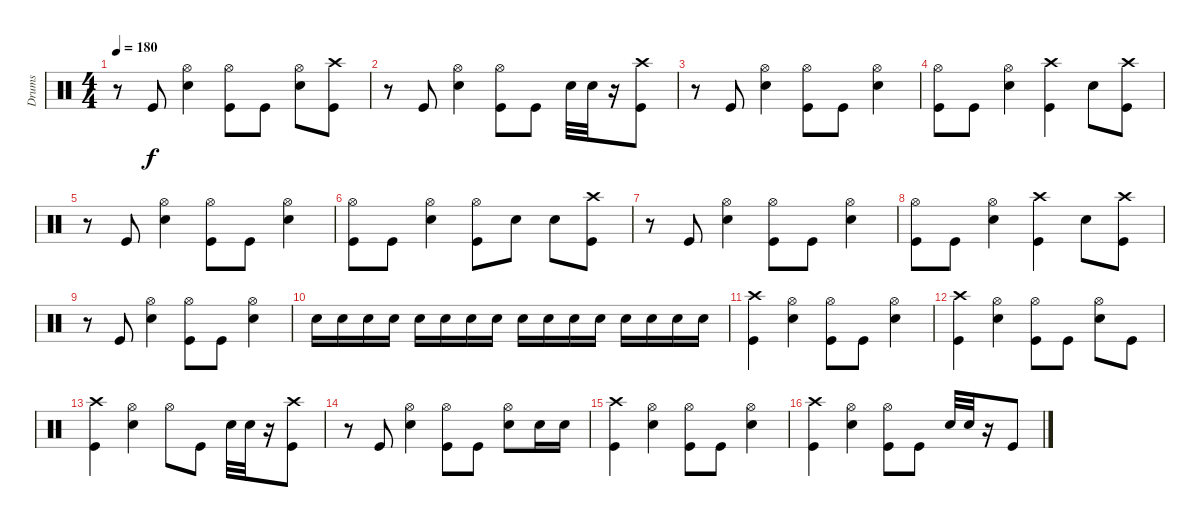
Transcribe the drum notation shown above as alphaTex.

\track ("Drums" "Drums") {instrument percussion}
\staff {score}
\articulation defaults
\ts (4 4)
\tempo 180
\clef neutral
\ks c
r.8{dy f} "Kick (hit)".8 ("Hi-Hat (open)" "Snare (hit) 2").4 ("Hi-Hat (open)" "Kick (hit)").8 "Kick (hit)".8 ("Hi-Hat (open)" "Snare (hit) 2").8 ("Crash high (hit)" "Kick (hit)").8 |
r.8 "Kick (hit)".8 ("Hi-Hat (open)" "Snare (hit) 2").4 ("Hi-Hat (open)" "Kick (hit)").8 "Kick (hit)".8 "Snare (hit) 2".32 "Snare (hit) 2".32 r.16 ("Crash high (hit)" "Kick (hit)").8 |
r.8 "Kick (hit)".8 ("Hi-Hat (open)" "Snare (hit) 2").4 ("Hi-Hat (open)" "Kick (hit)").8 "Kick (hit)".8 ("Hi-Hat (open)" "Snare (hit) 2").4 |
("Hi-Hat (open)" "Kick (hit)").8 "Kick (hit)".8 ("Hi-Hat (open)" "Snare (hit) 2").4 ("Crash high (hit)" "Kick (hit)").4 "Snare (hit) 2".8 ("Crash high (hit)" "Kick (hit)").8 |
r.8 "Kick (hit)".8 ("Hi-Hat (open)" "Snare (hit) 2").4 ("Hi-Hat (open)" "Kick (hit)").8 "Kick (hit)".8 ("Hi-Hat (open)" "Snare (hit) 2").4 |
("Hi-Hat (open)" "Kick (hit)").8 "Kick (hit)".8 ("Hi-Hat (open)" "Snare (hit) 2").4 ("Hi-Hat (open)" "Kick (hit)").8 "Snare (hit) 2".8 "Snare (hit) 2".8 ("Crash high (hit)" "Kick (hit)").8 |
r.8 "Kick (hit)".8 ("Hi-Hat (open)" "Snare (hit) 2").4 ("Hi-Hat (open)" "Kick (hit)").8 "Kick (hit)".8 ("Hi-Hat (open)" "Snare (hit) 2").4 |
("Hi-Hat (open)" "Kick (hit)").8 "Kick (hit)".8 ("Hi-Hat (open)" "Snare (hit) 2").4 ("Crash high (hit)" "Kick (hit)").4 "Snare (hit) 2".8 ("Crash high (hit)" "Kick (hit)").8 |
r.8 "Kick (hit)".8 ("Hi-Hat (open)" "Snare (hit) 2").4 ("Hi-Hat (open)" "Kick (hit)").8 "Kick (hit)".8 ("Hi-Hat (open)" "Snare (hit) 2").4 |
"Snare (hit) 2".16 "Snare (hit) 2".16 "Snare (hit) 2".16 "Snare (hit) 2".16 "Snare (hit) 2".16 "Snare (hit) 2".16 "Snare (hit) 2".16 "Snare (hit) 2".16 "Snare (hit) 2".16 "Snare (hit) 2".16 "Snare (hit) 2".16 "Snare (hit) 2".16 "Snare (hit) 2".16 "Snare (hit) 2".16 "Snare (hit) 2".16 "Snare (hit) 2".16 |
("Crash high (hit)" "Kick (hit)").4 ("Hi-Hat (open)" "Snare (hit) 2").4 ("Hi-Hat (open)" "Kick (hit)").8 "Kick (hit)".8 ("Hi-Hat (open)" "Snare (hit) 2").4 |
("Crash high (hit)" "Kick (hit)").4 ("Hi-Hat (open)" "Snare (hit) 2").4 ("Hi-Hat (open)" "Kick (hit)").8 "Kick (hit)".8 ("Hi-Hat (open)" "Snare (hit) 2").8 "Kick (hit)".8 |
("Crash high (hit)" "Kick (hit)").4 ("Hi-Hat (open)" "Snare (hit) 2").4 "Hi-Hat (open)".8 "Kick (hit)".8 "Snare (hit) 2".32 "Snare (hit) 2".32 r.16 ("Crash high (hit)" "Kick (hit)").8 |
r.8 "Kick (hit)".8 ("Hi-Hat (open)" "Snare (hit) 2").4 ("Hi-Hat (open)" "Kick (hit)").8 "Kick (hit)".8 ("Hi-Hat (open)" "Snare (hit) 2").8 "Snare (hit) 2".16 "Snare (hit) 2".16 |
("Crash high (hit)" "Kick (hit)").4 ("Hi-Hat (open)" "Snare (hit) 2").4 ("Hi-Hat (open)" "Kick (hit)").8 "Kick (hit)".8 ("Hi-Hat (open)" "Snare (hit) 2").4 |
("Crash high (hit)" "Kick (hit)").4 ("Hi-Hat (open)" "Snare (hit) 2").4 ("Hi-Hat (open)" "Kick (hit)").8 "Kick (hit)".8 "Snare (hit) 2".32 "Snare (hit) 2".32 r.16 "Kick (hit)".8
